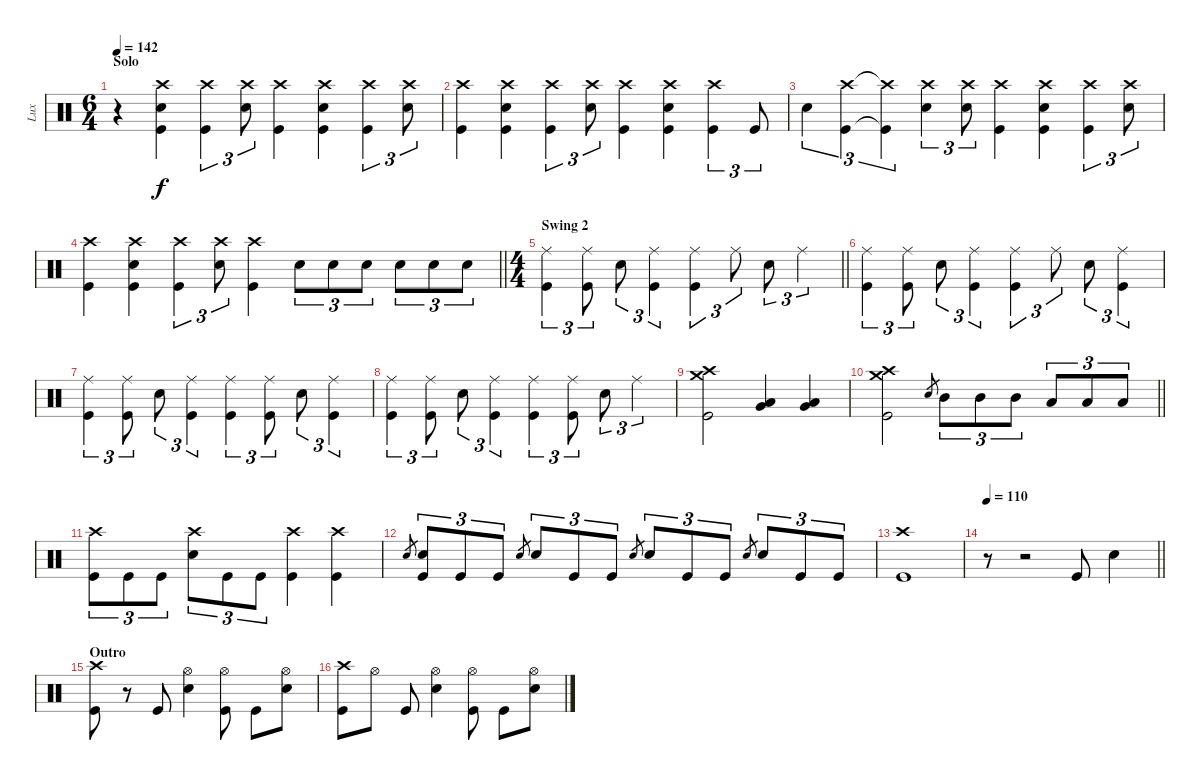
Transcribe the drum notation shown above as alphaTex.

\track ("Lux" "Lux") {mute instrument percussion}
\staff {score}
\articulation defaults
\ts (6 4)
\section ("" "Solo")
\tempo 142
\clef neutral
\ks c
r.4{dy f} ("Crash high (hit)" "Snare (hit) 2" "Kick (hit)").4 ("Crash high (hit)" "Kick (hit)").4{tu (3 2)} ("Crash high (hit)" "Snare (hit) 2").8{tu (3 2)} ("Crash high (hit)" "Kick (hit)").4 ("Crash high (hit)" "Snare (hit) 2" "Kick (hit)").4 ("Crash high (hit)" "Kick (hit)").4{tu (3 2)} ("Crash high (hit)" "Snare (hit) 2").8{tu (3 2)} |
("Crash high (hit)" "Kick (hit)").4 ("Crash high (hit)" "Snare (hit) 2" "Kick (hit)").4 ("Crash high (hit)" "Kick (hit)").4{tu (3 2)} ("Crash high (hit)" "Snare (hit) 2").8{tu (3 2)} ("Crash high (hit)" "Kick (hit)").4 ("Crash high (hit)" "Snare (hit) 2" "Kick (hit)").4 ("Crash high (hit)" "Kick (hit)").4{tu (3 2)} "Kick (hit)".8{tu (3 2)} |
"Snare (hit) 2".4{tu (3 2)} ("Crash high (hit)" "Kick (hit)").4{tu (3 2)} ("Crash high (hit)"{t} "Kick (hit)"{t}).4{tu (3 2)} ("Crash high (hit)" "Snare (hit) 2").4{tu (3 2)} ("Crash high (hit)" "Snare (hit) 2").8{tu (3 2)} ("Crash high (hit)" "Kick (hit)").4 ("Crash high (hit)" "Snare (hit) 2" "Kick (hit)").4 ("Crash high (hit)" "Kick (hit)").4{tu (3 2)} ("Crash high (hit)" "Snare (hit) 2").8{tu (3 2)} |
\barLineRight lightlight
("Crash high (hit)" "Kick (hit)").4 ("Crash high (hit)" "Snare (hit) 2" "Kick (hit)").4 ("Crash high (hit)" "Kick (hit)").4{tu (3 2)} ("Crash high (hit)" "Snare (hit) 2").8{tu (3 2)} ("Crash high (hit)" "Kick (hit)").4 "Snare (hit) 2".8{tu (3 2)} "Snare (hit) 2".8{tu (3 2)} "Snare (hit) 2".8{tu (3 2)} "Snare (hit) 2".8{tu (3 2)} "Snare (hit) 2".8{tu (3 2)} "Snare (hit) 2".8{tu (3 2)} |
\ts (4 4)
\section ("" "Swing 2")
\barLineRight lightlight
("Ride (middle)" "Kick (hit)").4{tu (3 2)} ("Ride (middle)" "Kick (hit)").8{tu (3 2)} "Snare (hit) 2".8{tu (3 2)} ("Ride (middle)" "Kick (hit)").4{tu (3 2)} ("Ride (middle)" "Kick (hit)").4{tu (3 2)} "Ride (middle)".8{tu (3 2)} "Snare (hit) 2".8{tu (3 2)} "Ride (middle)".4{tu (3 2)} |
("Ride (middle)" "Kick (hit)").4{tu (3 2)} ("Ride (middle)" "Kick (hit)").8{tu (3 2)} "Snare (hit) 2".8{tu (3 2)} ("Ride (middle)" "Kick (hit)").4{tu (3 2)} ("Ride (middle)" "Kick (hit)").4{tu (3 2)} "Ride (middle)".8{tu (3 2)} "Snare (hit) 2".8{tu (3 2)} ("Ride (middle)" "Kick (hit)").4{tu (3 2)} |
("Ride (middle)" "Kick (hit)").4{tu (3 2)} ("Ride (middle)" "Kick (hit)").8{tu (3 2)} "Snare (hit) 2".8{tu (3 2)} ("Ride (middle)" "Kick (hit)").4{tu (3 2)} ("Ride (middle)" "Kick (hit)").4{tu (3 2)} ("Ride (middle)" "Kick (hit)").8{tu (3 2)} "Snare (hit) 2".8{tu (3 2)} ("Ride (middle)" "Kick (hit)").4{tu (3 2)} |
("Ride (middle)" "Kick (hit)").4{tu (3 2)} ("Ride (middle)" "Kick (hit)").8{tu (3 2)} "Snare (hit) 2".8{tu (3 2)} ("Ride (middle)" "Kick (hit)").4{tu (3 2)} ("Ride (middle)" "Kick (hit)").4{tu (3 2)} ("Ride (middle)" "Kick (hit)").8{tu (3 2)} "Snare (hit) 2".8{tu (3 2)} "Ride (middle)".4{tu (3 2)} |
("Crash high (hit)" "Crash medium (hit)" "Kick (hit)").2 ("Low Tom (hit)" "Very Low Tom (hit)").4 ("Low Tom (hit)" "Very Low Tom (hit)").4 |
\barLineRight lightlight
("Crash high (hit)" "Crash medium (hit)" "Kick (hit)").2 "Snare (hit)".8{gr} "Mid Tom (hit)".8{tu (3 2)} "Mid Tom (hit)".8{tu (3 2)} "Mid Tom (hit)".8{tu (3 2)} "Low Tom (hit)".8{tu (3 2)} "Low Tom (hit)".8{tu (3 2)} "Low Tom (hit)".8{tu (3 2)} |
("Crash high (hit)" "Kick (hit)").8{tu (3 2)} "Kick (hit)".8{tu (3 2)} "Kick (hit)".8{tu (3 2)} ("Crash high (hit)" "Snare (hit) 2").8{tu (3 2)} "Kick (hit)".8{tu (3 2)} "Kick (hit)".8{tu (3 2)} ("Crash high (hit)" "Kick (hit)").4 ("Crash high (hit)" "Kick (hit)").4 |
"Snare (hit)".8{gr} ("Snare (hit) 2" "Kick (hit)").8{tu (3 2)} "Kick (hit)".8{tu (3 2)} "Kick (hit)".8{tu (3 2)} "Snare (hit)".8{gr} "Snare (hit) 2".8{tu (3 2)} "Kick (hit)".8{tu (3 2)} "Kick (hit)".8{tu (3 2)} "Snare (hit)".8{gr} "Snare (hit) 2".8{tu (3 2)} "Kick (hit)".8{tu (3 2)} "Kick (hit)".8{tu (3 2)} "Snare (hit)".8{gr} "Snare (hit) 2".8{tu (3 2)} "Kick (hit)".8{tu (3 2)} "Kick (hit)".8{tu (3 2)} |
("Crash high (hit)" "Kick (hit)").1 |
\tempo 110
\barLineRight lightlight
r.8 r.2 "Kick (hit)".8 "Snare (hit) 2".4 |
\section ("" "Outro")
("Crash high (hit)" "Kick (hit)").8 r.8 "Kick (hit)".8 ("Hi-Hat (open)" "Snare (hit) 2").4 ("Hi-Hat (open)" "Kick (hit)").8 "Kick (hit)".8 ("Hi-Hat (open)" "Snare (hit) 2").8 |
("Crash high (hit)" "Kick (hit)").8 "Hi-Hat (open)".8 "Kick (hit)".8 ("Hi-Hat (open)" "Snare (hit) 2").4 ("Hi-Hat (open)" "Kick (hit)").8 "Kick (hit)".8 ("Hi-Hat (open)" "Snare (hit) 2").8
